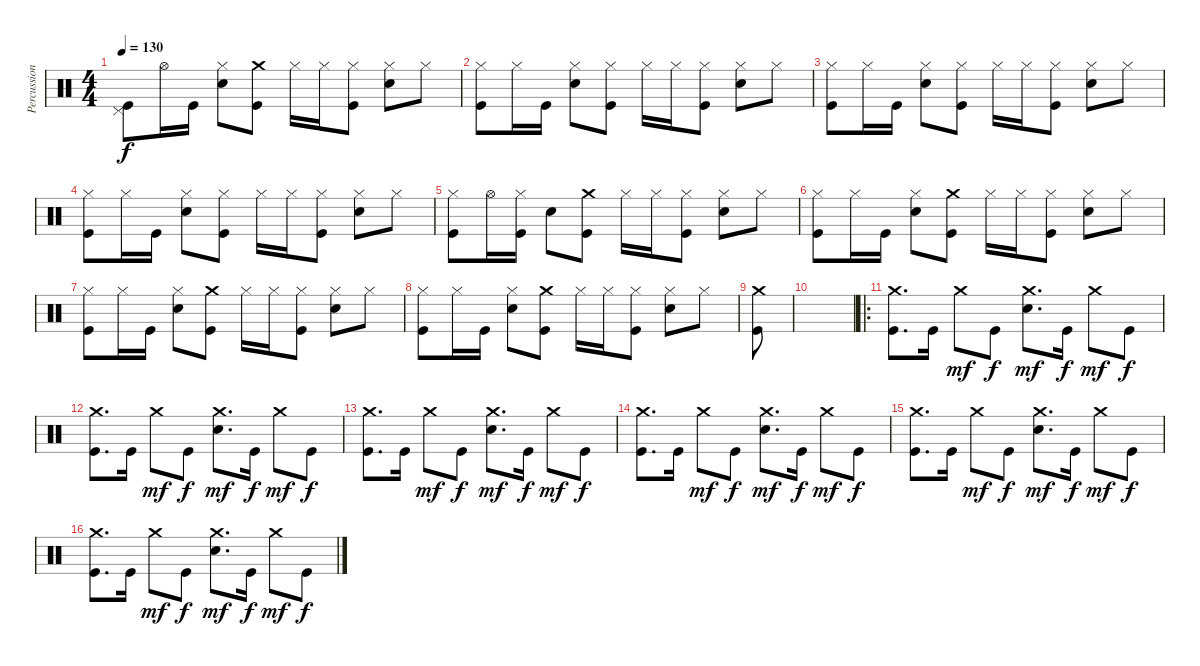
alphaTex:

\track ("Percussion" "Percussion") {instrument percussion}
\staff {score}
\articulation defaults
\ts (4 4)
\tempo 130
\clef neutral
\ks c
("Pedal Hi-Hat (hit)" "Kick (hit)").8{dy f} "Hi-Hat (open)".16 "Kick (hit)".16 ("Hi-Hat (closed)" "Snare (hit) 2").8 ("Crash medium (hit)" "Kick (hit)").8 "Hi-Hat (closed)".16 "Hi-Hat (closed)".16 ("Hi-Hat (closed)" "Kick (hit)").8 ("Hi-Hat (closed)" "Snare (hit) 2").8 "Hi-Hat (closed)".8 |
("Hi-Hat (closed)" "Kick (hit)").8 "Hi-Hat (closed)".16 "Kick (hit)".16 ("Hi-Hat (closed)" "Snare (hit) 2").8 ("Hi-Hat (closed)" "Kick (hit)").8 "Hi-Hat (closed)".16 "Hi-Hat (closed)".16 ("Hi-Hat (closed)" "Kick (hit)").8 ("Hi-Hat (closed)" "Snare (hit) 2").8 "Hi-Hat (closed)".8 |
("Hi-Hat (closed)" "Kick (hit)").8 "Hi-Hat (closed)".16 "Kick (hit)".16 ("Hi-Hat (closed)" "Snare (hit) 2").8 ("Hi-Hat (closed)" "Kick (hit)").8 "Hi-Hat (closed)".16 "Hi-Hat (closed)".16 ("Hi-Hat (closed)" "Kick (hit)").8 ("Hi-Hat (closed)" "Snare (hit) 2").8 "Hi-Hat (closed)".8 |
("Hi-Hat (closed)" "Kick (hit)").8 "Hi-Hat (closed)".16 "Kick (hit)".16 ("Hi-Hat (closed)" "Snare (hit) 2").8 ("Hi-Hat (closed)" "Kick (hit)").8 "Hi-Hat (closed)".16 "Hi-Hat (closed)".16 ("Hi-Hat (closed)" "Kick (hit)").8 ("Hi-Hat (closed)" "Snare (hit) 2").8 "Hi-Hat (closed)".8 |
("Hi-Hat (closed)" "Kick (hit)").8 "Hi-Hat (open)".16 ("Hi-Hat (closed)" "Kick (hit)").16 "Snare (hit) 2".8 ("Crash medium (hit)" "Kick (hit)").8 "Hi-Hat (closed)".16 "Hi-Hat (closed)".16 ("Hi-Hat (closed)" "Kick (hit)").8 ("Hi-Hat (closed)" "Snare (hit) 2").8 "Hi-Hat (closed)".8 |
("Hi-Hat (closed)" "Kick (hit)").8 "Hi-Hat (closed)".16 "Kick (hit)".16 ("Hi-Hat (closed)" "Snare (hit) 2").8 ("Crash medium (hit)" "Kick (hit)").8 "Hi-Hat (closed)".16 "Hi-Hat (closed)".16 ("Hi-Hat (closed)" "Kick (hit)").8 ("Hi-Hat (closed)" "Snare (hit) 2").8 "Hi-Hat (closed)".8 |
("Hi-Hat (closed)" "Kick (hit)").8 "Hi-Hat (closed)".16 "Kick (hit)".16 ("Hi-Hat (closed)" "Snare (hit) 2").8 ("Crash medium (hit)" "Kick (hit)").8 "Hi-Hat (closed)".16 "Hi-Hat (closed)".16 ("Hi-Hat (closed)" "Kick (hit)").8 ("Hi-Hat (closed)" "Snare (hit) 2").8 "Hi-Hat (closed)".8 |
("Hi-Hat (closed)" "Kick (hit)").8 "Hi-Hat (closed)".16 "Kick (hit)".16 ("Hi-Hat (closed)" "Snare (hit) 2").8 ("Crash medium (hit)" "Kick (hit)").8 "Hi-Hat (closed)".16 "Hi-Hat (closed)".16 ("Hi-Hat (closed)" "Kick (hit)").8 ("Hi-Hat (closed)" "Snare (hit) 2").8 "Hi-Hat (closed)".8 |
("Crash medium (hit)" "Kick (hit)").8 |
|
\ro
("Crash medium (hit)" "Kick (hit)").8{d} "Kick (hit)".16 "Crash medium (hit)".8{dy mf} "Kick (hit)".8{dy f} ("Crash medium (hit)" "Snare (hit) 2").8{d dy mf} "Kick (hit)".16{dy f} "Crash medium (hit)".8{dy mf} "Kick (hit)".8{dy f} |
("Crash medium (hit)" "Kick (hit)").8{d} "Kick (hit)".16 "Crash medium (hit)".8{dy mf} "Kick (hit)".8{dy f} ("Crash medium (hit)" "Snare (hit) 2").8{d dy mf} "Kick (hit)".16{dy f} "Crash medium (hit)".8{dy mf} "Kick (hit)".8{dy f} |
("Crash medium (hit)" "Kick (hit)").8{d} "Kick (hit)".16 "Crash medium (hit)".8{dy mf} "Kick (hit)".8{dy f} ("Crash medium (hit)" "Snare (hit) 2").8{d dy mf} "Kick (hit)".16{dy f} "Crash medium (hit)".8{dy mf} "Kick (hit)".8{dy f} |
("Crash medium (hit)" "Kick (hit)").8{d} "Kick (hit)".16 "Crash medium (hit)".8{dy mf} "Kick (hit)".8{dy f} ("Crash medium (hit)" "Snare (hit) 2").8{d dy mf} "Kick (hit)".16{dy f} "Crash medium (hit)".8{dy mf} "Kick (hit)".8{dy f} |
("Crash medium (hit)" "Kick (hit)").8{d} "Kick (hit)".16 "Crash medium (hit)".8{dy mf} "Kick (hit)".8{dy f} ("Crash medium (hit)" "Snare (hit) 2").8{d dy mf} "Kick (hit)".16{dy f} "Crash medium (hit)".8{dy mf} "Kick (hit)".8{dy f} |
("Crash medium (hit)" "Kick (hit)").8{d} "Kick (hit)".16 "Crash medium (hit)".8{dy mf} "Kick (hit)".8{dy f} ("Crash medium (hit)" "Snare (hit) 2").8{d dy mf} "Kick (hit)".16{dy f} "Crash medium (hit)".8{dy mf} "Kick (hit)".8{dy f}
